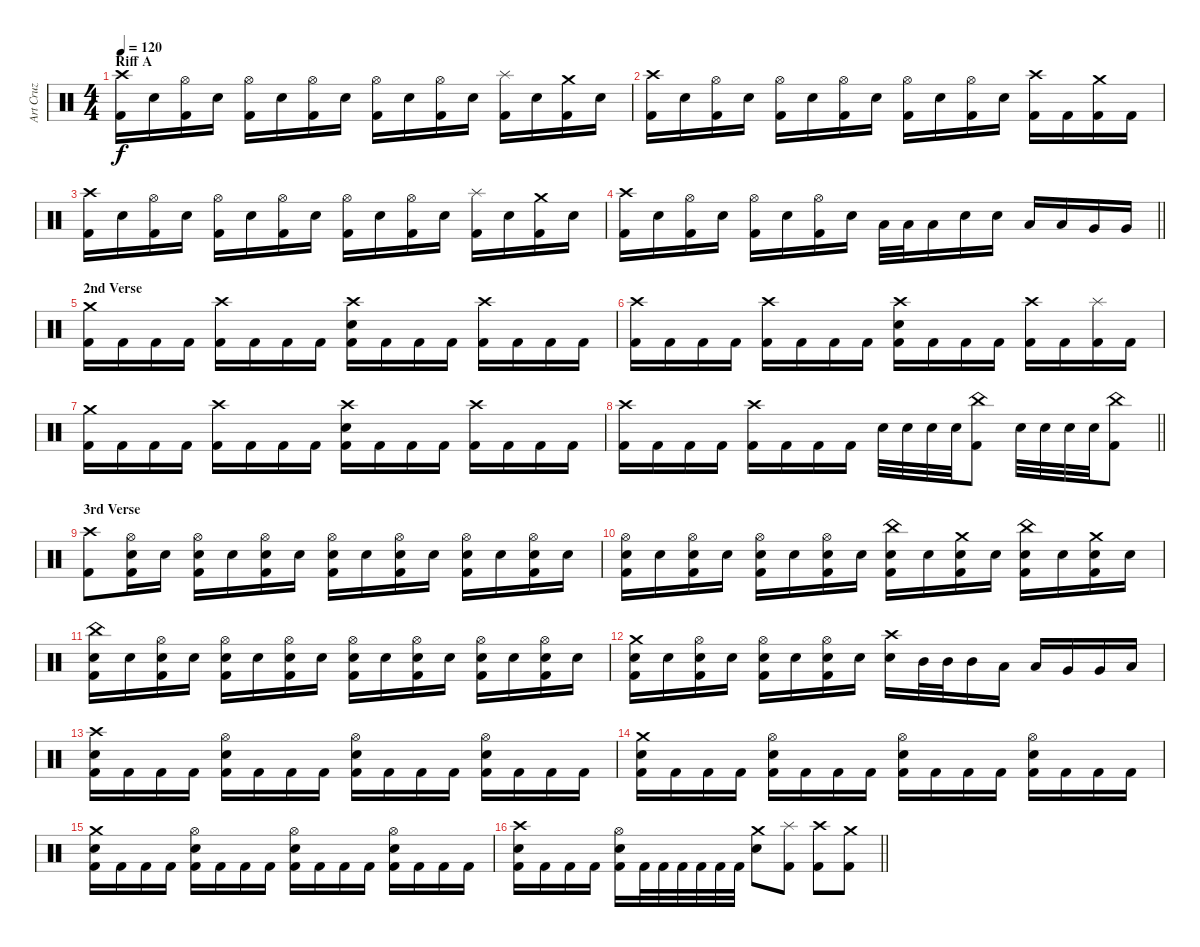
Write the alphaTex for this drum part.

\track ("Art Cruz" "Art Cruz") {instrument percussion}
\staff {score}
\articulation defaults
\ts (4 4)
\section ("" "Riff A")
\tempo 120
\clef neutral
\ks c
("Crash high (hit)" "Kick (hit) 2").16{dy f} "Snare (hit) 2".16 ("Hi-Hat (open)" "Kick (hit) 2").16 "Snare (hit) 2".16 ("Hi-Hat (open)" "Kick (hit) 2").16 "Snare (hit) 2".16 ("Hi-Hat (open)" "Kick (hit) 2").16 "Snare (hit) 2".16 ("Hi-Hat (open)" "Kick (hit) 2").16 "Snare (hit) 2".16 ("Hi-Hat (open)" "Kick (hit) 2").16 "Snare (hit) 2".16 ("Splash (hit)" "Kick (hit) 2").16 "Snare (hit) 2".16 ("Crash medium (hit)" "Kick (hit) 2").16 "Snare (hit) 2".16 |
("Crash high (hit)" "Kick (hit) 2").16 "Snare (hit) 2".16 ("Hi-Hat (open)" "Kick (hit) 2").16 "Snare (hit) 2".16 ("Hi-Hat (open)" "Kick (hit) 2").16 "Snare (hit) 2".16 ("Hi-Hat (open)" "Kick (hit) 2").16 "Snare (hit) 2".16 ("Hi-Hat (open)" "Kick (hit) 2").16 "Snare (hit) 2".16 ("Hi-Hat (open)" "Kick (hit) 2").16 "Snare (hit) 2".16 ("Crash high (hit)" "Kick (hit) 2").16 "Kick (hit) 2".16 ("Crash medium (hit)" "Kick (hit) 2").16 "Kick (hit) 2".16 |
("Crash high (hit)" "Kick (hit) 2").16 "Snare (hit) 2".16 ("Hi-Hat (open)" "Kick (hit) 2").16 "Snare (hit) 2".16 ("Hi-Hat (open)" "Kick (hit) 2").16 "Snare (hit) 2".16 ("Hi-Hat (open)" "Kick (hit) 2").16 "Snare (hit) 2".16 ("Hi-Hat (open)" "Kick (hit) 2").16 "Snare (hit) 2".16 ("Hi-Hat (open)" "Kick (hit) 2").16 "Snare (hit) 2".16 ("Splash (hit)" "Kick (hit) 2").16 "Snare (hit) 2".16 ("Crash medium (hit)" "Kick (hit) 2").16 "Snare (hit) 2".16 |
\barLineRight lightlight
("Crash high (hit)" "Kick (hit) 2").16 "Snare (hit) 2".16 ("Hi-Hat (open)" "Kick (hit) 2").16 "Snare (hit) 2".16 ("Hi-Hat (open)" "Kick (hit) 2").16 "Snare (hit) 2".16 ("Hi-Hat (open)" "Kick (hit) 2").16 "Snare (hit) 2".16 "Low Tom (hit)".32 "Low Tom (hit)".32 "Low Tom (hit)".16 "Snare (hit) 2".16 "Snare (hit) 2".16 "Low Tom (hit)".16 "Low Tom (hit)".16 "Very Low Tom (hit)".16 "Very Low Tom (hit)".16 |
\section ("" "2nd Verse")
("Crash medium (hit)" "Kick (hit) 2").16 "Kick (hit) 2".16 "Kick (hit) 2".16 "Kick (hit) 2".16 ("Crash high (hit)" "Kick (hit) 2").16 "Kick (hit) 2".16 "Kick (hit) 2".16 "Kick (hit) 2".16 ("Crash high (hit)" "Snare (hit) 2" "Kick (hit) 2").16 "Kick (hit) 2".16 "Kick (hit) 2".16 "Kick (hit) 2".16 ("Crash high (hit)" "Kick (hit) 2").16 "Kick (hit) 2".16 "Kick (hit) 2".16 "Kick (hit) 2".16 |
("Crash high (hit)" "Kick (hit) 2").16 "Kick (hit) 2".16 "Kick (hit) 2".16 "Kick (hit) 2".16 ("Crash high (hit)" "Kick (hit) 2").16 "Kick (hit) 2".16 "Kick (hit) 2".16 "Kick (hit) 2".16 ("Crash high (hit)" "Snare (hit) 2" "Kick (hit) 2").16 "Kick (hit) 2".16 "Kick (hit) 2".16 "Kick (hit) 2".16 ("Crash high (hit)" "Kick (hit) 2").16 "Kick (hit) 2".16 ("Splash (hit)" "Kick (hit) 2").16 "Kick (hit) 2".16 |
("Crash medium (hit)" "Kick (hit) 2").16 "Kick (hit) 2".16 "Kick (hit) 2".16 "Kick (hit) 2".16 ("Crash high (hit)" "Kick (hit) 2").16 "Kick (hit) 2".16 "Kick (hit) 2".16 "Kick (hit) 2".16 ("Crash high (hit)" "Snare (hit) 2" "Kick (hit) 2").16 "Kick (hit) 2".16 "Kick (hit) 2".16 "Kick (hit) 2".16 ("Crash high (hit)" "Kick (hit) 2").16 "Kick (hit) 2".16 "Kick (hit) 2".16 "Kick (hit) 2".16 |
\barLineRight lightlight
("Crash high (hit)" "Kick (hit) 2").16 "Kick (hit) 2".16 "Kick (hit) 2".16 "Kick (hit) 2".16 ("Crash high (hit)" "Kick (hit) 2").16 "Kick (hit) 2".16 "Kick (hit) 2".16 "Kick (hit) 2".16 "Snare (hit) 2".32 "Snare (hit) 2".32 "Snare (hit) 2".32 "Snare (hit) 2".32 ("China (hit)" "Kick (hit) 2").8 "Snare (hit) 2".32 "Snare (hit) 2".32 "Snare (hit) 2".32 "Snare (hit) 2".32 ("China (hit)" "Kick (hit) 2").8 |
\section ("" "3rd Verse")
("Crash high (hit)" "Kick (hit) 2").8 ("Hi-Hat (open)" "Snare (hit) 2" "Kick (hit) 2").16 "Snare (hit) 2".16 ("Hi-Hat (open)" "Snare (hit) 2" "Kick (hit) 2").16 "Snare (hit) 2".16 ("Hi-Hat (open)" "Snare (hit) 2" "Kick (hit) 2").16 "Snare (hit) 2".16 ("Hi-Hat (open)" "Snare (hit) 2" "Kick (hit) 2").16 "Snare (hit) 2".16 ("Hi-Hat (open)" "Snare (hit) 2" "Kick (hit) 2").16 "Snare (hit) 2".16 ("Hi-Hat (open)" "Snare (hit) 2" "Kick (hit) 2").16 "Snare (hit) 2".16 ("Hi-Hat (open)" "Snare (hit) 2" "Kick (hit) 2").16 "Snare (hit) 2".16 |
("Hi-Hat (open)" "Snare (hit) 2" "Kick (hit) 2").16 "Snare (hit) 2".16 ("Hi-Hat (open)" "Snare (hit) 2" "Kick (hit) 2").16 "Snare (hit) 2".16 ("Hi-Hat (open)" "Snare (hit) 2" "Kick (hit) 2").16 "Snare (hit) 2".16 ("Hi-Hat (open)" "Snare (hit) 2" "Kick (hit) 2").16 "Snare (hit) 2".16 ("China (hit)" "Snare (hit) 2" "Kick (hit) 2").16 "Snare (hit) 2".16 ("Crash medium (hit)" "Snare (hit) 2" "Kick (hit) 2").16 "Snare (hit) 2".16 ("China (hit)" "Snare (hit) 2" "Kick (hit) 2").16 "Snare (hit) 2".16 ("Crash medium (hit)" "Snare (hit) 2" "Kick (hit) 2").16 "Snare (hit) 2".16 |
("China (hit)" "Snare (hit) 2" "Kick (hit) 2").16 "Snare (hit) 2".16 ("Hi-Hat (open)" "Snare (hit) 2" "Kick (hit) 2").16 "Snare (hit) 2".16 ("Hi-Hat (open)" "Snare (hit) 2" "Kick (hit) 2").16 "Snare (hit) 2".16 ("Hi-Hat (open)" "Snare (hit) 2" "Kick (hit) 2").16 "Snare (hit) 2".16 ("Hi-Hat (open)" "Snare (hit) 2" "Kick (hit) 2").16 "Snare (hit) 2".16 ("Hi-Hat (open)" "Snare (hit) 2" "Kick (hit) 2").16 "Snare (hit) 2".16 ("Hi-Hat (open)" "Snare (hit) 2" "Kick (hit) 2").16 "Snare (hit) 2".16 ("Hi-Hat (open)" "Snare (hit) 2" "Kick (hit) 2").16 "Snare (hit) 2".16 |
("Crash medium (hit)" "Snare (hit) 2" "Kick (hit) 2").16 "Snare (hit) 2".16 ("Hi-Hat (open)" "Snare (hit) 2" "Kick (hit) 2").16 "Snare (hit) 2".16 ("Hi-Hat (open)" "Snare (hit) 2" "Kick (hit) 2").16 "Snare (hit) 2".16 ("Hi-Hat (open)" "Snare (hit) 2" "Kick (hit) 2").16 "Snare (hit) 2".16 ("Crash high (hit)" "Snare (hit) 2").16 "Mid Tom (hit)".32 "Mid Tom (hit)".32 "Mid Tom (hit)".16 "Low Tom (hit)".16 "Low Tom (hit)".16 "Very Low Tom (hit)".16 "Very Low Tom (hit)".16 "Low Floor Tom (hit)".16 |
("Crash high (hit)" "Snare (hit) 2" "Kick (hit) 2").16 "Kick (hit) 2".16 "Kick (hit) 2".16 "Kick (hit) 2".16 ("Hi-Hat (open)" "Snare (hit) 2" "Kick (hit) 2").16 "Kick (hit) 2".16 "Kick (hit) 2".16 "Kick (hit) 2".16 ("Hi-Hat (open)" "Snare (hit) 2" "Kick (hit) 2").16 "Kick (hit) 2".16 "Kick (hit) 2".16 "Kick (hit) 2".16 ("Hi-Hat (open)" "Snare (hit) 2" "Kick (hit) 2").16 "Kick (hit) 2".16 "Kick (hit) 2".16 "Kick (hit) 2".16 |
("Crash medium (hit)" "Snare (hit) 2" "Kick (hit) 2").16 "Kick (hit) 2".16 "Kick (hit) 2".16 "Kick (hit) 2".16 ("Hi-Hat (open)" "Snare (hit) 2" "Kick (hit) 2").16 "Kick (hit) 2".16 "Kick (hit) 2".16 "Kick (hit) 2".16 ("Hi-Hat (open)" "Snare (hit) 2" "Kick (hit) 2").16 "Kick (hit) 2".16 "Kick (hit) 2".16 "Kick (hit) 2".16 ("Hi-Hat (open)" "Snare (hit) 2" "Kick (hit) 2").16 "Kick (hit) 2".16 "Kick (hit) 2".16 "Kick (hit) 2".16 |
("Crash medium (hit)" "Snare (hit) 2" "Kick (hit) 2").16 "Kick (hit) 2".16 "Kick (hit) 2".16 "Kick (hit) 2".16 ("Hi-Hat (open)" "Snare (hit) 2" "Kick (hit) 2").16 "Kick (hit) 2".16 "Kick (hit) 2".16 "Kick (hit) 2".16 ("Hi-Hat (open)" "Snare (hit) 2" "Kick (hit) 2").16 "Kick (hit) 2".16 "Kick (hit) 2".16 "Kick (hit) 2".16 ("Hi-Hat (open)" "Snare (hit) 2" "Kick (hit) 2").16 "Kick (hit) 2".16 "Kick (hit) 2".16 "Kick (hit) 2".16 |
\barLineRight lightlight
("Crash high (hit)" "Snare (hit) 2" "Kick (hit) 2").16 "Kick (hit) 2".16 "Kick (hit) 2".16 "Kick (hit) 2".16 ("Hi-Hat (open)" "Snare (hit) 2" "Kick (hit) 2").16 "Kick (hit) 2".32 "Kick (hit) 2".32 "Kick (hit) 2".32 "Kick (hit) 2".32 "Kick (hit) 2".32 "Kick (hit) 2".32 ("Crash medium (hit)" "Snare (hit) 2").8 ("Splash (hit)" "Kick (hit) 2").8 ("Crash high (hit)" "Kick (hit) 2").8 ("Crash medium (hit)" "Kick (hit) 2").8
